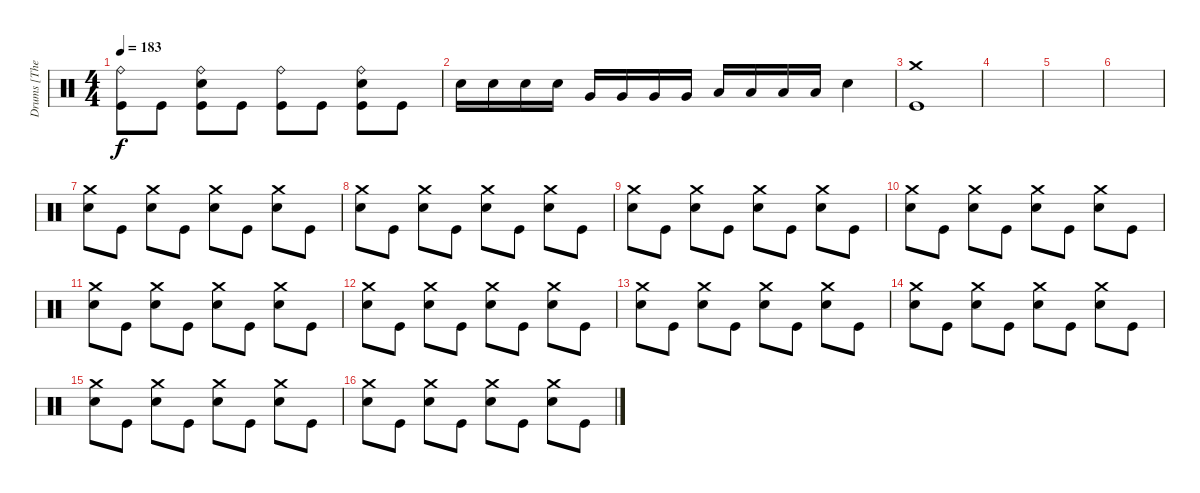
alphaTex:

\track ("Drums [The Rev]" "Drums [The") {instrument percussion}
\staff {score}
\articulation defaults
\ts (4 4)
\tempo 183
\clef neutral
\ks c
("Ride (bell)" "Kick (hit)").8{dy f} "Kick (hit)".8 ("Ride (bell)" "Snare (hit) 2" "Kick (hit)").8 "Kick (hit)".8 ("Ride (bell)" "Kick (hit)").8 "Kick (hit)".8 ("Ride (bell)" "Snare (hit) 2" "Kick (hit)").8 "Kick (hit)".8 |
"Snare (hit) 2".16 "Snare (hit) 2".16 "Snare (hit) 2".16 "Snare (hit) 2".16 "Very Low Tom (hit)".16 "Very Low Tom (hit)".16 "Very Low Tom (hit)".16 "Very Low Tom (hit)".16 "Low Floor Tom (hit)".16 "Low Floor Tom (hit)".16 "Low Floor Tom (hit)".16 "Low Floor Tom (hit)".16 "Snare (hit) 2".4 |
("Crash medium (hit)" "Kick (hit)").1 |
|
|
|
("Crash medium (hit)" "Snare (hit) 2").8 "Kick (hit)".8 ("Crash medium (hit)" "Snare (hit) 2").8 "Kick (hit)".8 ("Crash medium (hit)" "Snare (hit) 2").8 "Kick (hit)".8 ("Crash medium (hit)" "Snare (hit) 2").8 "Kick (hit)".8 |
("Crash medium (hit)" "Snare (hit) 2").8 "Kick (hit)".8 ("Crash medium (hit)" "Snare (hit) 2").8 "Kick (hit)".8 ("Crash medium (hit)" "Snare (hit) 2").8 "Kick (hit)".8 ("Crash medium (hit)" "Snare (hit) 2").8 "Kick (hit)".8 |
("Crash medium (hit)" "Snare (hit) 2").8 "Kick (hit)".8 ("Crash medium (hit)" "Snare (hit) 2").8 "Kick (hit)".8 ("Crash medium (hit)" "Snare (hit) 2").8 "Kick (hit)".8 ("Crash medium (hit)" "Snare (hit) 2").8 "Kick (hit)".8 |
("Crash medium (hit)" "Snare (hit) 2").8 "Kick (hit)".8 ("Crash medium (hit)" "Snare (hit) 2").8 "Kick (hit)".8 ("Crash medium (hit)" "Snare (hit) 2").8 "Kick (hit)".8 ("Crash medium (hit)" "Snare (hit) 2").8 "Kick (hit)".8 |
("Crash medium (hit)" "Snare (hit) 2").8 "Kick (hit)".8 ("Crash medium (hit)" "Snare (hit) 2").8 "Kick (hit)".8 ("Crash medium (hit)" "Snare (hit) 2").8 "Kick (hit)".8 ("Crash medium (hit)" "Snare (hit) 2").8 "Kick (hit)".8 |
("Crash medium (hit)" "Snare (hit) 2").8 "Kick (hit)".8 ("Crash medium (hit)" "Snare (hit) 2").8 "Kick (hit)".8 ("Crash medium (hit)" "Snare (hit) 2").8 "Kick (hit)".8 ("Crash medium (hit)" "Snare (hit) 2").8 "Kick (hit)".8 |
("Crash medium (hit)" "Snare (hit) 2").8 "Kick (hit)".8 ("Crash medium (hit)" "Snare (hit) 2").8 "Kick (hit)".8 ("Crash medium (hit)" "Snare (hit) 2").8 "Kick (hit)".8 ("Crash medium (hit)" "Snare (hit) 2").8 "Kick (hit)".8 |
("Crash medium (hit)" "Snare (hit) 2").8 "Kick (hit)".8 ("Crash medium (hit)" "Snare (hit) 2").8 "Kick (hit)".8 ("Crash medium (hit)" "Snare (hit) 2").8 "Kick (hit)".8 ("Crash medium (hit)" "Snare (hit) 2").8 "Kick (hit)".8 |
("Crash medium (hit)" "Snare (hit) 2").8 "Kick (hit)".8 ("Crash medium (hit)" "Snare (hit) 2").8 "Kick (hit)".8 ("Crash medium (hit)" "Snare (hit) 2").8 "Kick (hit)".8 ("Crash medium (hit)" "Snare (hit) 2").8 "Kick (hit)".8 |
("Crash medium (hit)" "Snare (hit) 2").8 "Kick (hit)".8 ("Crash medium (hit)" "Snare (hit) 2").8 "Kick (hit)".8 ("Crash medium (hit)" "Snare (hit) 2").8 "Kick (hit)".8 ("Crash medium (hit)" "Snare (hit) 2").8 "Kick (hit)".8
